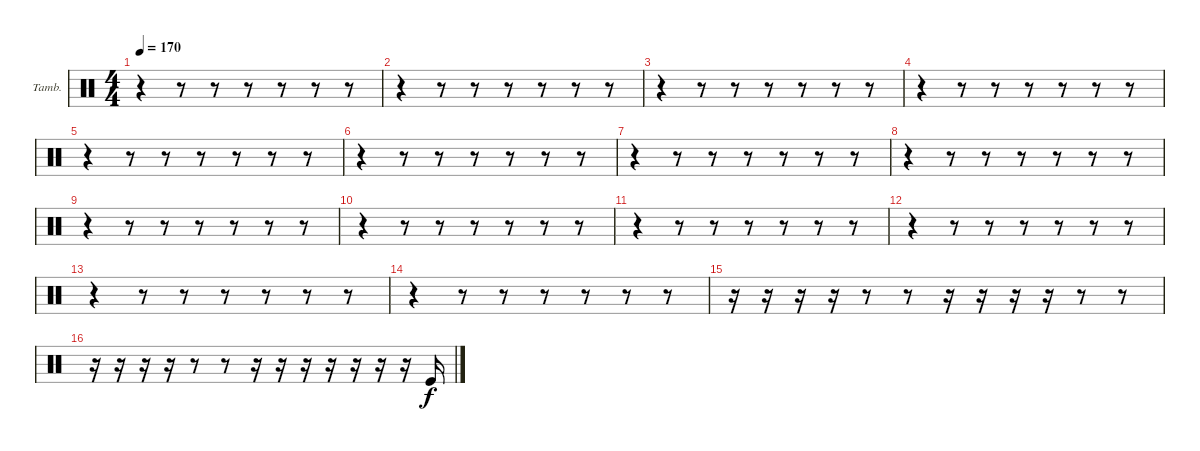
\bracketExtendMode groupsimilarinstruments
\firstSystemTrackNameOrientation horizontal
\otherSystemsTrackNameOrientation horizontal
\track ("Tambourine" "Tamb.") {instrument percussion}
\staff {score}
\articulation defaults
\ts (4 4)
\tempo 170
\clef neutral
\ks c
r.4{dy f} r.8 r.8 r.8 r.8 r.8 r.8 |
r.4 r.8 r.8 r.8 r.8 r.8 r.8 |
r.4 r.8 r.8 r.8 r.8 r.8 r.8 |
r.4 r.8 r.8 r.8 r.8 r.8 r.8 |
r.4 r.8 r.8 r.8 r.8 r.8 r.8 |
r.4 r.8 r.8 r.8 r.8 r.8 r.8 |
r.4 r.8 r.8 r.8 r.8 r.8 r.8 |
r.4 r.8 r.8 r.8 r.8 r.8 r.8 |
r.4 r.8 r.8 r.8 r.8 r.8 r.8 |
r.4 r.8 r.8 r.8 r.8 r.8 r.8 |
r.4 r.8 r.8 r.8 r.8 r.8 r.8 |
r.4 r.8 r.8 r.8 r.8 r.8 r.8 |
r.4 r.8 r.8 r.8 r.8 r.8 r.8 |
r.4 r.8 r.8 r.8 r.8 r.8 r.8 |
r.16 r.16 r.16 r.16 r.8 r.8 r.16 r.16 r.16 r.16 r.8 r.8 |
r.16 r.16 r.16 r.16 r.8 r.8 r.16 r.16 r.16 r.16 r.16 r.16 r.16 "Kick (hit)".16
